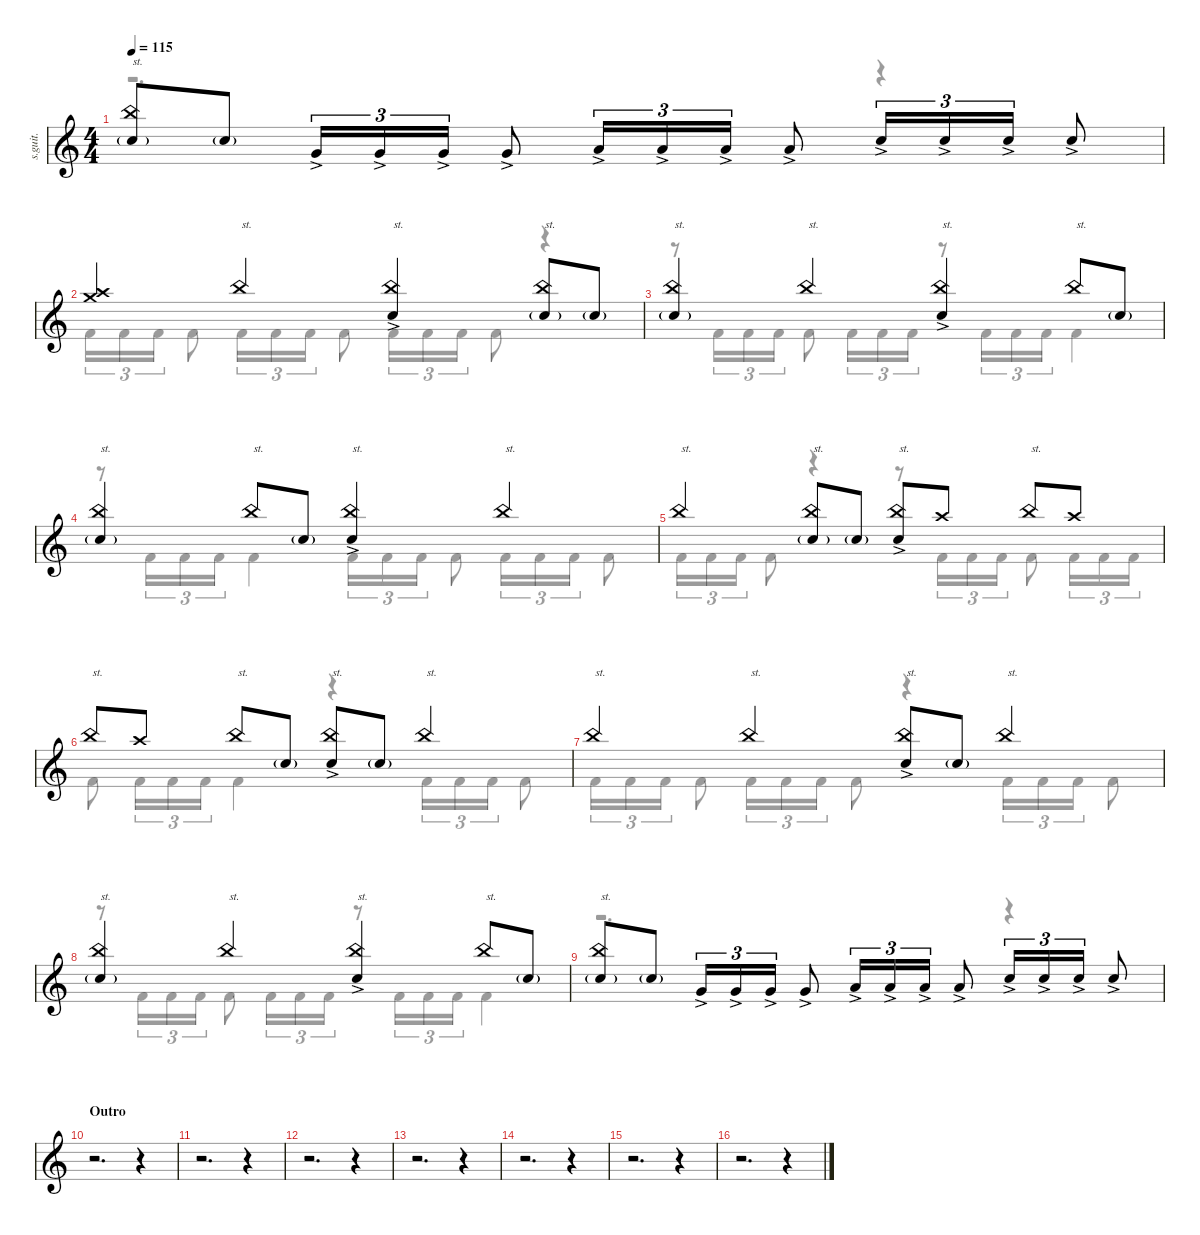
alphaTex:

\defaultSystemsLayout 4
\hideDynamics
\bracketExtendMode nobrackets
\track ("Percussion" "s.guit.") {instrument percussion}
\staff {score}
\articulation defaults
\voice
\ts (4 4)
\tempo 115
\clef g2
\ks c
("China (hit)" "Snare (hit) 2"{g}).8{txt "st." lyrics (0 "") lyrics (1 "") lyrics (2 "") lyrics (3 "") lyrics (4 "") dy f} "Snare (hit) 2"{g}.8{lyrics (0 "") lyrics (1 "") lyrics (2 "") lyrics (3 "") lyrics (4 "") dy ff} "Very Low Tom (hit)"{ac}.16{tu (3 2) lyrics (0 "") lyrics (1 "") lyrics (2 "") lyrics (3 "") lyrics (4 "") dy mf} "Very Low Tom (hit)"{ac}.16{tu (3 2) lyrics (0 "") lyrics (1 "") lyrics (2 "") lyrics (3 "") lyrics (4 "")} "Very Low Tom (hit)"{ac}.16{tu (3 2) lyrics (0 "") lyrics (1 "") lyrics (2 "") lyrics (3 "") lyrics (4 "")} "Very Low Tom (hit)"{ac}.8{lyrics (0 "") lyrics (1 "") lyrics (2 "") lyrics (3 "") lyrics (4 "")} "Low Tom (hit)"{ac}.16{tu (3 2) lyrics (0 "") lyrics (1 "") lyrics (2 "") lyrics (3 "") lyrics (4 "")} "Low Tom (hit)"{ac}.16{tu (3 2) lyrics (0 "") lyrics (1 "") lyrics (2 "") lyrics (3 "") lyrics (4 "")} "Low Tom (hit)"{ac}.16{tu (3 2) lyrics (0 "") lyrics (1 "") lyrics (2 "") lyrics (3 "") lyrics (4 "")} "Low Tom (hit)"{ac}.8{lyrics (0 "") lyrics (1 "") lyrics (2 "") lyrics (3 "") lyrics (4 "")} "Snare (hit) 2"{ac}.16{tu (3 2) lyrics (0 "") lyrics (1 "") lyrics (2 "") lyrics (3 "") lyrics (4 "")} "Snare (hit) 2"{ac}.16{tu (3 2) lyrics (0 "") lyrics (1 "") lyrics (2 "") lyrics (3 "") lyrics (4 "")} "Snare (hit) 2"{ac}.16{tu (3 2) lyrics (0 "") lyrics (1 "") lyrics (2 "") lyrics (3 "") lyrics (4 "")} "Snare (hit) 2"{ac}.8{lyrics (0 "") lyrics (1 "") lyrics (2 "") lyrics (3 "") lyrics (4 "")} |
("Crash high (hit)" "Crash medium (hit)").4{lyrics (0 "") lyrics (1 "") lyrics (2 "") lyrics (3 "") lyrics (4 "") dy f} "China (hit)".4{txt "st." lyrics (0 "") lyrics (1 "") lyrics (2 "") lyrics (3 "") lyrics (4 "")} ("China (hit)" "Snare (hit) 2"{ac}).4{txt "st." lyrics (0 "") lyrics (1 "") lyrics (2 "") lyrics (3 "") lyrics (4 "")} ("China (hit)" "Snare (hit) 2"{g}).8{txt "st." lyrics (0 "") lyrics (1 "") lyrics (2 "") lyrics (3 "") lyrics (4 "")} "Snare (hit) 2"{g}.8{lyrics (0 "") lyrics (1 "") lyrics (2 "") lyrics (3 "") lyrics (4 "") dy ff} |
("China (hit)" "Snare (hit) 2"{g}).4{txt "st." lyrics (0 "") lyrics (1 "") lyrics (2 "") lyrics (3 "") lyrics (4 "") dy f} "China (hit)".4{txt "st." lyrics (0 "") lyrics (1 "") lyrics (2 "") lyrics (3 "") lyrics (4 "")} ("China (hit)" "Snare (hit) 2"{ac}).4{txt "st." lyrics (0 "") lyrics (1 "") lyrics (2 "") lyrics (3 "") lyrics (4 "")} "China (hit)".8{txt "st." lyrics (0 "") lyrics (1 "") lyrics (2 "") lyrics (3 "") lyrics (4 "")} "Snare (hit) 2"{g}.8{lyrics (0 "") lyrics (1 "") lyrics (2 "") lyrics (3 "") lyrics (4 "") dy ff} |
("China (hit)" "Snare (hit) 2"{g}).4{txt "st." lyrics (0 "") lyrics (1 "") lyrics (2 "") lyrics (3 "") lyrics (4 "") dy f} "China (hit)".8{txt "st." lyrics (0 "") lyrics (1 "") lyrics (2 "") lyrics (3 "") lyrics (4 "")} "Snare (hit) 2"{g}.8{lyrics (0 "") lyrics (1 "") lyrics (2 "") lyrics (3 "") lyrics (4 "") dy ff} ("China (hit)" "Snare (hit) 2"{ac}).4{txt "st." lyrics (0 "") lyrics (1 "") lyrics (2 "") lyrics (3 "") lyrics (4 "") dy f} "China (hit)".4{txt "st." lyrics (0 "") lyrics (1 "") lyrics (2 "") lyrics (3 "") lyrics (4 "")} |
"China (hit)".4{txt "st." lyrics (0 "") lyrics (1 "") lyrics (2 "") lyrics (3 "") lyrics (4 "")} ("China (hit)" "Snare (hit) 2"{g}).8{txt "st." lyrics (0 "") lyrics (1 "") lyrics (2 "") lyrics (3 "") lyrics (4 "")} "Snare (hit) 2"{g}.8{lyrics (0 "") lyrics (1 "") lyrics (2 "") lyrics (3 "") lyrics (4 "") dy ff} ("China (hit)" "Snare (hit) 2"{ac}).8{txt "st." lyrics (0 "") lyrics (1 "") lyrics (2 "") lyrics (3 "") lyrics (4 "") dy f} "Crash high (hit)".8{lyrics (0 "") lyrics (1 "") lyrics (2 "") lyrics (3 "") lyrics (4 "")} "China (hit)".8{txt "st." lyrics (0 "") lyrics (1 "") lyrics (2 "") lyrics (3 "") lyrics (4 "")} "Crash high (hit)".8{lyrics (0 "") lyrics (1 "") lyrics (2 "") lyrics (3 "") lyrics (4 "")} |
"China (hit)".8{txt "st." lyrics (0 "") lyrics (1 "") lyrics (2 "") lyrics (3 "") lyrics (4 "")} "Crash high (hit)".8{lyrics (0 "") lyrics (1 "") lyrics (2 "") lyrics (3 "") lyrics (4 "")} "China (hit)".8{txt "st." lyrics (0 "") lyrics (1 "") lyrics (2 "") lyrics (3 "") lyrics (4 "")} "Snare (hit) 2"{g}.8{lyrics (0 "") lyrics (1 "") lyrics (2 "") lyrics (3 "") lyrics (4 "") dy ff} ("China (hit)" "Snare (hit) 2"{ac}).8{txt "st." lyrics (0 "") lyrics (1 "") lyrics (2 "") lyrics (3 "") lyrics (4 "") dy f} "Snare (hit) 2"{g}.8{lyrics (0 "") lyrics (1 "") lyrics (2 "") lyrics (3 "") lyrics (4 "") dy ff} "China (hit)".4{txt "st." lyrics (0 "") lyrics (1 "") lyrics (2 "") lyrics (3 "") lyrics (4 "") dy f} |
"China (hit)".4{txt "st." lyrics (0 "") lyrics (1 "") lyrics (2 "") lyrics (3 "") lyrics (4 "")} "China (hit)".4{txt "st." lyrics (0 "") lyrics (1 "") lyrics (2 "") lyrics (3 "") lyrics (4 "")} ("China (hit)" "Snare (hit) 2"{ac}).8{txt "st." lyrics (0 "") lyrics (1 "") lyrics (2 "") lyrics (3 "") lyrics (4 "")} "Snare (hit) 2"{g}.8{lyrics (0 "") lyrics (1 "") lyrics (2 "") lyrics (3 "") lyrics (4 "") dy ff} "China (hit)".4{txt "st." lyrics (0 "") lyrics (1 "") lyrics (2 "") lyrics (3 "") lyrics (4 "") dy f} |
("China (hit)" "Snare (hit) 2"{g}).4{txt "st." lyrics (0 "") lyrics (1 "") lyrics (2 "") lyrics (3 "") lyrics (4 "")} "China (hit)".4{txt "st." lyrics (0 "") lyrics (1 "") lyrics (2 "") lyrics (3 "") lyrics (4 "")} ("China (hit)" "Snare (hit) 2"{ac}).4{txt "st." lyrics (0 "") lyrics (1 "") lyrics (2 "") lyrics (3 "") lyrics (4 "")} "China (hit)".8{txt "st." lyrics (0 "") lyrics (1 "") lyrics (2 "") lyrics (3 "") lyrics (4 "")} "Snare (hit) 2"{g}.8{lyrics (0 "") lyrics (1 "") lyrics (2 "") lyrics (3 "") lyrics (4 "") dy ff} |
("China (hit)" "Snare (hit) 2"{g}).8{txt "st." lyrics (0 "") lyrics (1 "") lyrics (2 "") lyrics (3 "") lyrics (4 "") dy f} "Snare (hit) 2"{g}.8{lyrics (0 "") lyrics (1 "") lyrics (2 "") lyrics (3 "") lyrics (4 "") dy ff} "Very Low Tom (hit)"{ac}.16{tu (3 2) lyrics (0 "") lyrics (1 "") lyrics (2 "") lyrics (3 "") lyrics (4 "") dy mf} "Very Low Tom (hit)"{ac}.16{tu (3 2) lyrics (0 "") lyrics (1 "") lyrics (2 "") lyrics (3 "") lyrics (4 "")} "Very Low Tom (hit)"{ac}.16{tu (3 2) lyrics (0 "") lyrics (1 "") lyrics (2 "") lyrics (3 "") lyrics (4 "")} "Very Low Tom (hit)"{ac}.8{lyrics (0 "") lyrics (1 "") lyrics (2 "") lyrics (3 "") lyrics (4 "")} "Low Tom (hit)"{ac}.16{tu (3 2) lyrics (0 "") lyrics (1 "") lyrics (2 "") lyrics (3 "") lyrics (4 "")} "Low Tom (hit)"{ac}.16{tu (3 2) lyrics (0 "") lyrics (1 "") lyrics (2 "") lyrics (3 "") lyrics (4 "")} "Low Tom (hit)"{ac}.16{tu (3 2) lyrics (0 "") lyrics (1 "") lyrics (2 "") lyrics (3 "") lyrics (4 "")} "Low Tom (hit)"{ac}.8{lyrics (0 "") lyrics (1 "") lyrics (2 "") lyrics (3 "") lyrics (4 "")} "Snare (hit) 2"{ac}.16{tu (3 2) lyrics (0 "") lyrics (1 "") lyrics (2 "") lyrics (3 "") lyrics (4 "")} "Snare (hit) 2"{ac}.16{tu (3 2) lyrics (0 "") lyrics (1 "") lyrics (2 "") lyrics (3 "") lyrics (4 "")} "Snare (hit) 2"{ac}.16{tu (3 2) lyrics (0 "") lyrics (1 "") lyrics (2 "") lyrics (3 "") lyrics (4 "")} "Snare (hit) 2"{ac}.8{lyrics (0 "") lyrics (1 "") lyrics (2 "") lyrics (3 "") lyrics (4 "")} |
\section ("" "Outro")
r.2{d} r.4 |
r.2{d} r.4 |
r.2{d} r.4 |
r.2{d} r.4 |
r.2{d} r.4 |
r.2{d} r.4 |
r.2{d} r.4
\voice
\clef g2
\ottava regular
\simile none
\ks c
r.2{d dy f} r.4 |
"Kick (hit) 2".16{tu (3 2) lyrics (0 "") lyrics (1 "") lyrics (2 "") lyrics (3 "") lyrics (4 "")} "Kick (hit) 2".16{tu (3 2) lyrics (0 "") lyrics (1 "") lyrics (2 "") lyrics (3 "") lyrics (4 "")} "Kick (hit) 2".16{tu (3 2) lyrics (0 "") lyrics (1 "") lyrics (2 "") lyrics (3 "") lyrics (4 "")} "Kick (hit) 2".8{lyrics (0 "") lyrics (1 "") lyrics (2 "") lyrics (3 "") lyrics (4 "")} "Kick (hit) 2".16{tu (3 2) lyrics (0 "") lyrics (1 "") lyrics (2 "") lyrics (3 "") lyrics (4 "")} "Kick (hit) 2".16{tu (3 2) lyrics (0 "") lyrics (1 "") lyrics (2 "") lyrics (3 "") lyrics (4 "")} "Kick (hit) 2".16{tu (3 2) lyrics (0 "") lyrics (1 "") lyrics (2 "") lyrics (3 "") lyrics (4 "")} "Kick (hit) 2".8{lyrics (0 "") lyrics (1 "") lyrics (2 "") lyrics (3 "") lyrics (4 "")} "Kick (hit) 2".16{tu (3 2) lyrics (0 "") lyrics (1 "") lyrics (2 "") lyrics (3 "") lyrics (4 "")} "Kick (hit) 2".16{tu (3 2) lyrics (0 "") lyrics (1 "") lyrics (2 "") lyrics (3 "") lyrics (4 "")} "Kick (hit) 2".16{tu (3 2) lyrics (0 "") lyrics (1 "") lyrics (2 "") lyrics (3 "") lyrics (4 "")} "Kick (hit) 2".8{lyrics (0 "") lyrics (1 "") lyrics (2 "") lyrics (3 "") lyrics (4 "")} r.4 |
r.8 "Kick (hit) 2".16{tu (3 2) lyrics (0 "") lyrics (1 "") lyrics (2 "") lyrics (3 "") lyrics (4 "")} "Kick (hit) 2".16{tu (3 2) lyrics (0 "") lyrics (1 "") lyrics (2 "") lyrics (3 "") lyrics (4 "")} "Kick (hit) 2".16{tu (3 2) lyrics (0 "") lyrics (1 "") lyrics (2 "") lyrics (3 "") lyrics (4 "")} "Kick (hit) 2".8{lyrics (0 "") lyrics (1 "") lyrics (2 "") lyrics (3 "") lyrics (4 "")} "Kick (hit) 2".16{tu (3 2) lyrics (0 "") lyrics (1 "") lyrics (2 "") lyrics (3 "") lyrics (4 "")} "Kick (hit) 2".16{tu (3 2) lyrics (0 "") lyrics (1 "") lyrics (2 "") lyrics (3 "") lyrics (4 "")} "Kick (hit) 2".16{tu (3 2) lyrics (0 "") lyrics (1 "") lyrics (2 "") lyrics (3 "") lyrics (4 "")} r.8 "Kick (hit) 2".16{tu (3 2) lyrics (0 "") lyrics (1 "") lyrics (2 "") lyrics (3 "") lyrics (4 "")} "Kick (hit) 2".16{tu (3 2) lyrics (0 "") lyrics (1 "") lyrics (2 "") lyrics (3 "") lyrics (4 "")} "Kick (hit) 2".16{tu (3 2) lyrics (0 "") lyrics (1 "") lyrics (2 "") lyrics (3 "") lyrics (4 "")} "Kick (hit) 2".4{lyrics (0 "") lyrics (1 "") lyrics (2 "") lyrics (3 "") lyrics (4 "")} |
r.8 "Kick (hit) 2".16{tu (3 2) lyrics (0 "") lyrics (1 "") lyrics (2 "") lyrics (3 "") lyrics (4 "")} "Kick (hit) 2".16{tu (3 2) lyrics (0 "") lyrics (1 "") lyrics (2 "") lyrics (3 "") lyrics (4 "")} "Kick (hit) 2".16{tu (3 2) lyrics (0 "") lyrics (1 "") lyrics (2 "") lyrics (3 "") lyrics (4 "")} "Kick (hit) 2".4{lyrics (0 "") lyrics (1 "") lyrics (2 "") lyrics (3 "") lyrics (4 "")} "Kick (hit) 2".16{tu (3 2) lyrics (0 "") lyrics (1 "") lyrics (2 "") lyrics (3 "") lyrics (4 "")} "Kick (hit) 2".16{tu (3 2) lyrics (0 "") lyrics (1 "") lyrics (2 "") lyrics (3 "") lyrics (4 "")} "Kick (hit) 2".16{tu (3 2) lyrics (0 "") lyrics (1 "") lyrics (2 "") lyrics (3 "") lyrics (4 "")} "Kick (hit) 2".8{lyrics (0 "") lyrics (1 "") lyrics (2 "") lyrics (3 "") lyrics (4 "")} "Kick (hit) 2".16{tu (3 2) lyrics (0 "") lyrics (1 "") lyrics (2 "") lyrics (3 "") lyrics (4 "")} "Kick (hit) 2".16{tu (3 2) lyrics (0 "") lyrics (1 "") lyrics (2 "") lyrics (3 "") lyrics (4 "")} "Kick (hit) 2".16{tu (3 2) lyrics (0 "") lyrics (1 "") lyrics (2 "") lyrics (3 "") lyrics (4 "")} "Kick (hit) 2".8{lyrics (0 "") lyrics (1 "") lyrics (2 "") lyrics (3 "") lyrics (4 "")} |
"Kick (hit) 2".16{tu (3 2) lyrics (0 "") lyrics (1 "") lyrics (2 "") lyrics (3 "") lyrics (4 "")} "Kick (hit) 2".16{tu (3 2) lyrics (0 "") lyrics (1 "") lyrics (2 "") lyrics (3 "") lyrics (4 "")} "Kick (hit) 2".16{tu (3 2) lyrics (0 "") lyrics (1 "") lyrics (2 "") lyrics (3 "") lyrics (4 "")} "Kick (hit) 2".8{lyrics (0 "") lyrics (1 "") lyrics (2 "") lyrics (3 "") lyrics (4 "")} r.4 r.8 "Kick (hit) 2".16{tu (3 2) lyrics (0 "") lyrics (1 "") lyrics (2 "") lyrics (3 "") lyrics (4 "")} "Kick (hit) 2".16{tu (3 2) lyrics (0 "") lyrics (1 "") lyrics (2 "") lyrics (3 "") lyrics (4 "")} "Kick (hit) 2".16{tu (3 2) lyrics (0 "") lyrics (1 "") lyrics (2 "") lyrics (3 "") lyrics (4 "")} "Kick (hit) 2".8{lyrics (0 "") lyrics (1 "") lyrics (2 "") lyrics (3 "") lyrics (4 "")} "Kick (hit) 2".16{tu (3 2) lyrics (0 "") lyrics (1 "") lyrics (2 "") lyrics (3 "") lyrics (4 "")} "Kick (hit) 2".16{tu (3 2) lyrics (0 "") lyrics (1 "") lyrics (2 "") lyrics (3 "") lyrics (4 "")} "Kick (hit) 2".16{tu (3 2) lyrics (0 "") lyrics (1 "") lyrics (2 "") lyrics (3 "") lyrics (4 "")} |
"Kick (hit) 2".8{lyrics (0 "") lyrics (1 "") lyrics (2 "") lyrics (3 "") lyrics (4 "")} "Kick (hit) 2".16{tu (3 2) lyrics (0 "") lyrics (1 "") lyrics (2 "") lyrics (3 "") lyrics (4 "")} "Kick (hit) 2".16{tu (3 2) lyrics (0 "") lyrics (1 "") lyrics (2 "") lyrics (3 "") lyrics (4 "")} "Kick (hit) 2".16{tu (3 2) lyrics (0 "") lyrics (1 "") lyrics (2 "") lyrics (3 "") lyrics (4 "")} "Kick (hit) 2".4{lyrics (0 "") lyrics (1 "") lyrics (2 "") lyrics (3 "") lyrics (4 "")} r.4 "Kick (hit) 2".16{tu (3 2) lyrics (0 "") lyrics (1 "") lyrics (2 "") lyrics (3 "") lyrics (4 "")} "Kick (hit) 2".16{tu (3 2) lyrics (0 "") lyrics (1 "") lyrics (2 "") lyrics (3 "") lyrics (4 "")} "Kick (hit) 2".16{tu (3 2) lyrics (0 "") lyrics (1 "") lyrics (2 "") lyrics (3 "") lyrics (4 "")} "Kick (hit) 2".8{lyrics (0 "") lyrics (1 "") lyrics (2 "") lyrics (3 "") lyrics (4 "")} |
"Kick (hit) 2".16{tu (3 2) lyrics (0 "") lyrics (1 "") lyrics (2 "") lyrics (3 "") lyrics (4 "")} "Kick (hit) 2".16{tu (3 2) lyrics (0 "") lyrics (1 "") lyrics (2 "") lyrics (3 "") lyrics (4 "")} "Kick (hit) 2".16{tu (3 2) lyrics (0 "") lyrics (1 "") lyrics (2 "") lyrics (3 "") lyrics (4 "")} "Kick (hit) 2".8{lyrics (0 "") lyrics (1 "") lyrics (2 "") lyrics (3 "") lyrics (4 "")} "Kick (hit) 2".16{tu (3 2) lyrics (0 "") lyrics (1 "") lyrics (2 "") lyrics (3 "") lyrics (4 "")} "Kick (hit) 2".16{tu (3 2) lyrics (0 "") lyrics (1 "") lyrics (2 "") lyrics (3 "") lyrics (4 "")} "Kick (hit) 2".16{tu (3 2) lyrics (0 "") lyrics (1 "") lyrics (2 "") lyrics (3 "") lyrics (4 "")} "Kick (hit) 2".8{lyrics (0 "") lyrics (1 "") lyrics (2 "") lyrics (3 "") lyrics (4 "")} r.4 "Kick (hit) 2".16{tu (3 2) lyrics (0 "") lyrics (1 "") lyrics (2 "") lyrics (3 "") lyrics (4 "")} "Kick (hit) 2".16{tu (3 2) lyrics (0 "") lyrics (1 "") lyrics (2 "") lyrics (3 "") lyrics (4 "")} "Kick (hit) 2".16{tu (3 2) lyrics (0 "") lyrics (1 "") lyrics (2 "") lyrics (3 "") lyrics (4 "")} "Kick (hit) 2".8{lyrics (0 "") lyrics (1 "") lyrics (2 "") lyrics (3 "") lyrics (4 "")} |
r.8 "Kick (hit) 2".16{tu (3 2) lyrics (0 "") lyrics (1 "") lyrics (2 "") lyrics (3 "") lyrics (4 "")} "Kick (hit) 2".16{tu (3 2) lyrics (0 "") lyrics (1 "") lyrics (2 "") lyrics (3 "") lyrics (4 "")} "Kick (hit) 2".16{tu (3 2) lyrics (0 "") lyrics (1 "") lyrics (2 "") lyrics (3 "") lyrics (4 "")} "Kick (hit) 2".8{lyrics (0 "") lyrics (1 "") lyrics (2 "") lyrics (3 "") lyrics (4 "")} "Kick (hit) 2".16{tu (3 2) lyrics (0 "") lyrics (1 "") lyrics (2 "") lyrics (3 "") lyrics (4 "")} "Kick (hit) 2".16{tu (3 2) lyrics (0 "") lyrics (1 "") lyrics (2 "") lyrics (3 "") lyrics (4 "")} "Kick (hit) 2".16{tu (3 2) lyrics (0 "") lyrics (1 "") lyrics (2 "") lyrics (3 "") lyrics (4 "")} r.8 "Kick (hit) 2".16{tu (3 2) lyrics (0 "") lyrics (1 "") lyrics (2 "") lyrics (3 "") lyrics (4 "")} "Kick (hit) 2".16{tu (3 2) lyrics (0 "") lyrics (1 "") lyrics (2 "") lyrics (3 "") lyrics (4 "")} "Kick (hit) 2".16{tu (3 2) lyrics (0 "") lyrics (1 "") lyrics (2 "") lyrics (3 "") lyrics (4 "")} "Kick (hit) 2".4{lyrics (0 "") lyrics (1 "") lyrics (2 "") lyrics (3 "") lyrics (4 "")} |
r.2{d} r.4 |
r.2{d} r.4 |
r.2{d} r.4 |
r.2{d} r.4 |
r.2{d} r.4 |
r.2{d} r.4 |
r.2{d} r.4 |
r.2{d} r.4
